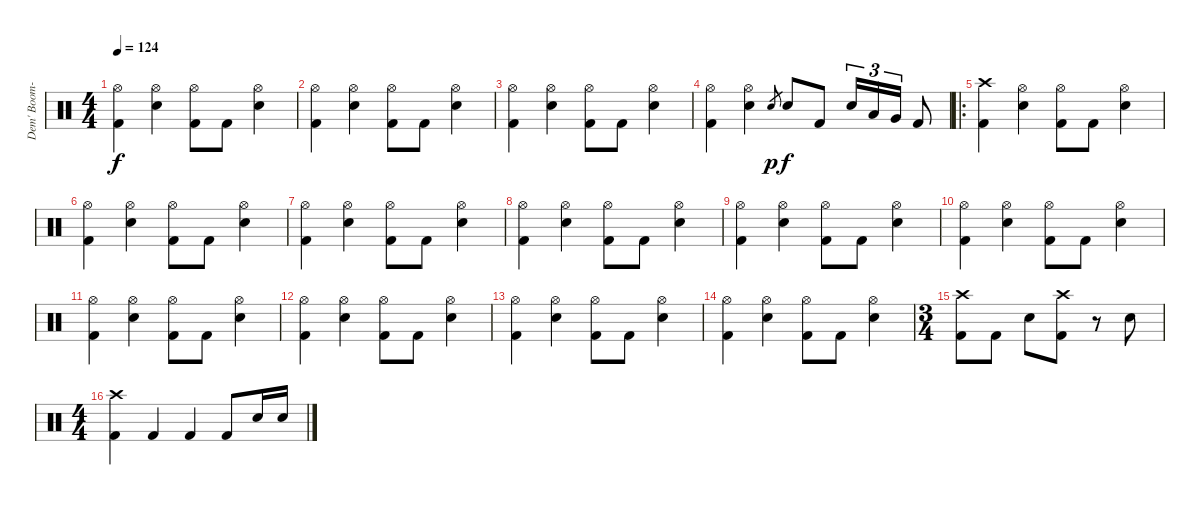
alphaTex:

\track ("Dem' Boom-Booms" "Dem' Boom-") {instrument percussion}
\staff {score}
\articulation defaults
\ts (4 4)
\tempo 124
\clef neutral
\ks c
("Hi-Hat (open)" "Kick (hit) 2").4{dy f} ("Hi-Hat (open)" "Electric Snare (hit)").4 ("Hi-Hat (open)" "Kick (hit) 2").8 "Kick (hit) 2".8 ("Hi-Hat (open)" "Electric Snare (hit)").4 |
("Hi-Hat (open)" "Kick (hit) 2").4 ("Hi-Hat (open)" "Electric Snare (hit)").4 ("Hi-Hat (open)" "Kick (hit) 2").8 "Kick (hit) 2".8 ("Hi-Hat (open)" "Electric Snare (hit)").4 |
("Hi-Hat (open)" "Kick (hit) 2").4 ("Hi-Hat (open)" "Electric Snare (hit)").4 ("Hi-Hat (open)" "Kick (hit) 2").8 "Kick (hit) 2".8 ("Hi-Hat (open)" "Electric Snare (hit)").4 |
("Hi-Hat (open)" "Kick (hit) 2").4 ("Hi-Hat (open)" "Electric Snare (hit)").4 "Electric Snare (hit)".8{gr dy p} "Electric Snare (hit)".8{dy f} "Kick (hit) 2".8 "Electric Snare (hit)".16{tu (3 2)} "Low Tom (hit)".16{tu (3 2)} "Very Low Tom (hit)".16{tu (3 2)} "Kick (hit) 2".8 |
\ro
("Crash high (hit)" "Kick (hit) 2").4 ("Hi-Hat (open)" "Electric Snare (hit)").4 ("Hi-Hat (open)" "Kick (hit) 2").8 "Kick (hit) 2".8 ("Hi-Hat (open)" "Electric Snare (hit)").4 |
("Hi-Hat (open)" "Kick (hit) 2").4 ("Hi-Hat (open)" "Electric Snare (hit)").4 ("Hi-Hat (open)" "Kick (hit) 2").8 "Kick (hit) 2".8 ("Hi-Hat (open)" "Electric Snare (hit)").4 |
("Hi-Hat (open)" "Kick (hit) 2").4 ("Hi-Hat (open)" "Electric Snare (hit)").4 ("Hi-Hat (open)" "Kick (hit) 2").8 "Kick (hit) 2".8 ("Hi-Hat (open)" "Electric Snare (hit)").4 |
("Hi-Hat (open)" "Kick (hit) 2").4 ("Hi-Hat (open)" "Electric Snare (hit)").4 ("Hi-Hat (open)" "Kick (hit) 2").8 "Kick (hit) 2".8 ("Hi-Hat (open)" "Electric Snare (hit)").4 |
("Hi-Hat (open)" "Kick (hit) 2").4 ("Hi-Hat (open)" "Electric Snare (hit)").4 ("Hi-Hat (open)" "Kick (hit) 2").8 "Kick (hit) 2".8 ("Hi-Hat (open)" "Electric Snare (hit)").4 |
("Hi-Hat (open)" "Kick (hit) 2").4 ("Hi-Hat (open)" "Electric Snare (hit)").4 ("Hi-Hat (open)" "Kick (hit) 2").8 "Kick (hit) 2".8 ("Hi-Hat (open)" "Electric Snare (hit)").4 |
("Hi-Hat (open)" "Kick (hit) 2").4 ("Hi-Hat (open)" "Electric Snare (hit)").4 ("Hi-Hat (open)" "Kick (hit) 2").8 "Kick (hit) 2".8 ("Hi-Hat (open)" "Electric Snare (hit)").4 |
("Hi-Hat (open)" "Kick (hit) 2").4 ("Hi-Hat (open)" "Electric Snare (hit)").4 ("Hi-Hat (open)" "Kick (hit) 2").8 "Kick (hit) 2".8 ("Hi-Hat (open)" "Electric Snare (hit)").4 |
("Hi-Hat (open)" "Kick (hit) 2").4 ("Hi-Hat (open)" "Electric Snare (hit)").4 ("Hi-Hat (open)" "Kick (hit) 2").8 "Kick (hit) 2".8 ("Hi-Hat (open)" "Electric Snare (hit)").4 |
("Hi-Hat (open)" "Kick (hit) 2").4 ("Hi-Hat (open)" "Electric Snare (hit)").4 ("Hi-Hat (open)" "Kick (hit) 2").8 "Kick (hit) 2".8 ("Hi-Hat (open)" "Electric Snare (hit)").4 |
\ts (3 4)
("Crash high (hit)" "Kick (hit) 2").8 "Kick (hit) 2".8 "Electric Snare (hit)".8 ("Crash high (hit)" "Kick (hit) 2").8 r.8 "Electric Snare (hit)".8 |
\ts (4 4)
("Crash high (hit)" "Kick (hit) 2").4 "Kick (hit) 2".4 "Kick (hit) 2".4 "Kick (hit) 2".8 "Electric Snare (hit)".16 "Electric Snare (hit)".16
